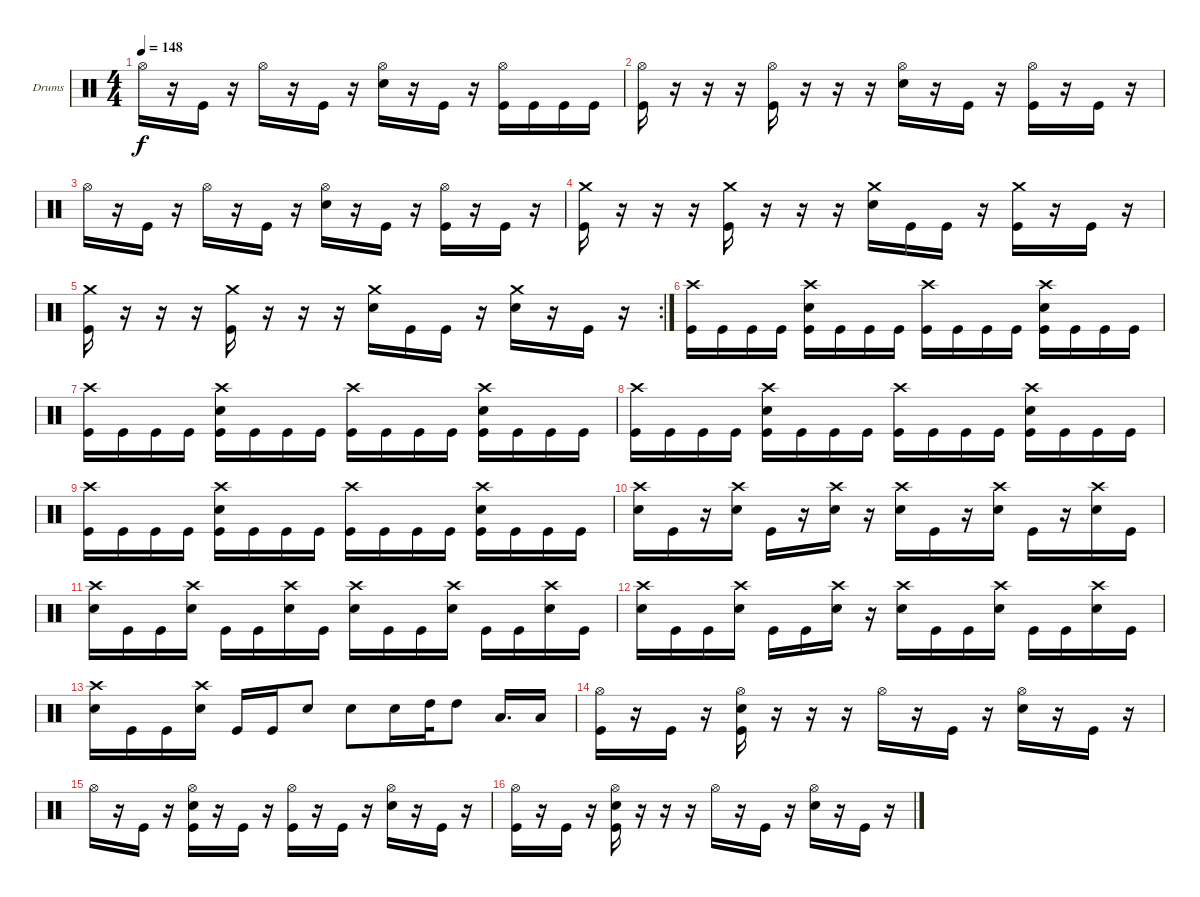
\bracketExtendMode groupsimilarinstruments
\firstSystemTrackNameOrientation horizontal
\otherSystemsTrackNameOrientation horizontal
\track ("Drumkit" "Drums") {instrument percussion}
\staff {score}
\articulation defaults
\ts (4 4)
\tempo 148
\clef neutral
\ks c "Hi-Hat (open)".16{dy f}
r.16 "Kick (hit)".16 r.16 "Hi-Hat (open)".16 r.16 "Kick (hit)".16 r.16 ("Snare (hit) 2" "Hi-Hat (open)").16 r.16 "Kick (hit)".16 r.16 ("Kick (hit)" "Hi-Hat (open)").16 "Kick (hit)".16 "Kick (hit)".16 "Kick (hit)".16 |
("Hi-Hat (open)" "Kick (hit)").16 r.16 r.16 r.16 ("Hi-Hat (open)" "Kick (hit)").16 r.16 r.16 r.16 ("Hi-Hat (open)" "Snare (hit) 2").16 r.16 "Kick (hit)".16 r.16 ("Kick (hit)" "Hi-Hat (open)").16 r.16 "Kick (hit)".16 r.16 |
"Hi-Hat (open)".16 r.16 "Kick (hit)".16 r.16 "Hi-Hat (open)".16 r.16 "Kick (hit)".16 r.16 ("Snare (hit) 2" "Hi-Hat (open)").16 r.16 "Kick (hit)".16 r.16 ("Kick (hit)" "Hi-Hat (open)").16 r.16 "Kick (hit)".16 r.16 |
("Crash medium (hit)" "Kick (hit)").16 r.16 r.16 r.16 ("Crash medium (hit)" "Kick (hit)").16 r.16 r.16 r.16 ("Crash medium (hit)" "Snare (hit) 2").16 "Kick (hit)".16 "Kick (hit)".16 r.16 ("Kick (hit)" "Crash medium (hit)").16 r.16 "Kick (hit)".16 r.16 |
\rc 2
("Crash medium (hit)" "Kick (hit)").16 r.16 r.16 r.16 ("Crash medium (hit)" "Kick (hit)").16 r.16 r.16 r.16 ("Crash medium (hit)" "Snare (hit) 2").16 "Kick (hit)".16 "Kick (hit)".16 r.16 ("Snare (hit) 2" "Crash medium (hit)").16 r.16 "Kick (hit)".16 r.16 |
("Kick (hit)" "Crash high (hit)").16 "Kick (hit)".16 "Kick (hit)".16 "Kick (hit)".16 ("Snare (hit) 2" "Kick (hit)" "Crash high (hit)").16 "Kick (hit)".16 "Kick (hit)".16 "Kick (hit)".16 ("Crash high (hit)" "Kick (hit)").16 "Kick (hit)".16 "Kick (hit)".16 "Kick (hit)".16 ("Crash high (hit)" "Kick (hit)" "Snare (hit) 2").16 "Kick (hit)".16 "Kick (hit)".16 "Kick (hit)".16 |
("Kick (hit)" "Crash high (hit)").16 "Kick (hit)".16 "Kick (hit)".16 "Kick (hit)".16 ("Snare (hit) 2" "Kick (hit)" "Crash high (hit)").16 "Kick (hit)".16 "Kick (hit)".16 "Kick (hit)".16 ("Crash high (hit)" "Kick (hit)").16 "Kick (hit)".16 "Kick (hit)".16 "Kick (hit)".16 ("Crash high (hit)" "Kick (hit)" "Snare (hit) 2").16 "Kick (hit)".16 "Kick (hit)".16 "Kick (hit)".16 |
("Kick (hit)" "Crash high (hit)").16 "Kick (hit)".16 "Kick (hit)".16 "Kick (hit)".16 ("Snare (hit) 2" "Kick (hit)" "Crash high (hit)").16 "Kick (hit)".16 "Kick (hit)".16 "Kick (hit)".16 ("Crash high (hit)" "Kick (hit)").16 "Kick (hit)".16 "Kick (hit)".16 "Kick (hit)".16 ("Crash high (hit)" "Kick (hit)" "Snare (hit) 2").16 "Kick (hit)".16 "Kick (hit)".16 "Kick (hit)".16 |
("Kick (hit)" "Crash high (hit)").16 "Kick (hit)".16 "Kick (hit)".16 "Kick (hit)".16 ("Snare (hit) 2" "Kick (hit)" "Crash high (hit)").16 "Kick (hit)".16 "Kick (hit)".16 "Kick (hit)".16 ("Crash high (hit)" "Kick (hit)").16 "Kick (hit)".16 "Kick (hit)".16 "Kick (hit)".16 ("Crash high (hit)" "Kick (hit)" "Snare (hit) 2").16 "Kick (hit)".16 "Kick (hit)".16 "Kick (hit)".16 |
("Snare (hit) 2" "Crash high (hit)").16 "Kick (hit)".16 r.16 ("Snare (hit) 2" "Crash high (hit)").16 "Kick (hit)".16 r.16 ("Crash high (hit)" "Snare (hit) 2").16 r.16 ("Crash high (hit)" "Snare (hit) 2").16 "Kick (hit)".16 r.16 ("Crash high (hit)" "Snare (hit) 2").16 "Kick (hit)".16 r.16 ("Crash high (hit)" "Snare (hit) 2").16 "Kick (hit)".16 |
("Snare (hit) 2" "Crash high (hit)").16 "Kick (hit)".16 "Kick (hit)".16 ("Snare (hit) 2" "Crash high (hit)").16 "Kick (hit)".16 "Kick (hit)".16 ("Crash high (hit)" "Snare (hit) 2").16 "Kick (hit)".16 ("Crash high (hit)" "Snare (hit) 2").16 "Kick (hit)".16 "Kick (hit)".16 ("Crash high (hit)" "Snare (hit) 2").16 "Kick (hit)".16 "Kick (hit)".16 ("Crash high (hit)" "Snare (hit) 2").16 "Kick (hit)".16 |
("Snare (hit) 2" "Crash high (hit)").16 "Kick (hit)".16 "Kick (hit)".16 ("Snare (hit) 2" "Crash high (hit)").16 "Kick (hit)".16 "Kick (hit)".16 ("Crash high (hit)" "Snare (hit) 2").16 r.16 ("Crash high (hit)" "Snare (hit) 2").16 "Kick (hit)".16 "Kick (hit)".16 ("Crash high (hit)" "Snare (hit) 2").16 "Kick (hit)".16 "Kick (hit)".16 ("Crash high (hit)" "Snare (hit) 2").16 "Kick (hit)".16 |
("Snare (hit) 2" "Crash high (hit)").16 "Kick (hit)".16 "Kick (hit)".16 ("Snare (hit) 2" "Crash high (hit)").16 "Kick (hit)".16 "Kick (hit)".16 "Snare (hit) 2".8 "Snare (hit) 2".8 "Snare (hit) 2".16 "High Tom (hit)".32 "High Tom (hit)".8 "Low Tom (hit)".16{d} "Low Tom (hit)".16 |
("Hi-Hat (open)" "Kick (hit)").16 r.16 "Kick (hit)".16 r.16 ("Hi-Hat (open)" "Snare (hit) 2" "Kick (hit)").16 r.16 r.16 r.16 "Hi-Hat (open)".16 r.16 "Kick (hit)".16 r.16 ("Snare (hit) 2" "Hi-Hat (open)").16 r.16 "Kick (hit)".16 r.16 |
"Hi-Hat (open)".16 r.16 "Kick (hit)".16 r.16 ("Snare (hit) 2" "Kick (hit)" "Hi-Hat (open)").16 r.16 "Kick (hit)".16 r.16 ("Kick (hit)" "Hi-Hat (open)").16 r.16 "Kick (hit)".16 r.16 ("Snare (hit) 2" "Hi-Hat (open)").16 r.16 "Kick (hit)".16 r.16 |
("Hi-Hat (open)" "Kick (hit)").16 r.16 "Kick (hit)".16 r.16 ("Hi-Hat (open)" "Snare (hit) 2" "Kick (hit)").16 r.16 r.16 r.16 "Hi-Hat (open)".16 r.16 "Kick (hit)".16 r.16 ("Snare (hit) 2" "Hi-Hat (open)").16 r.16 "Kick (hit)".16 r.16
